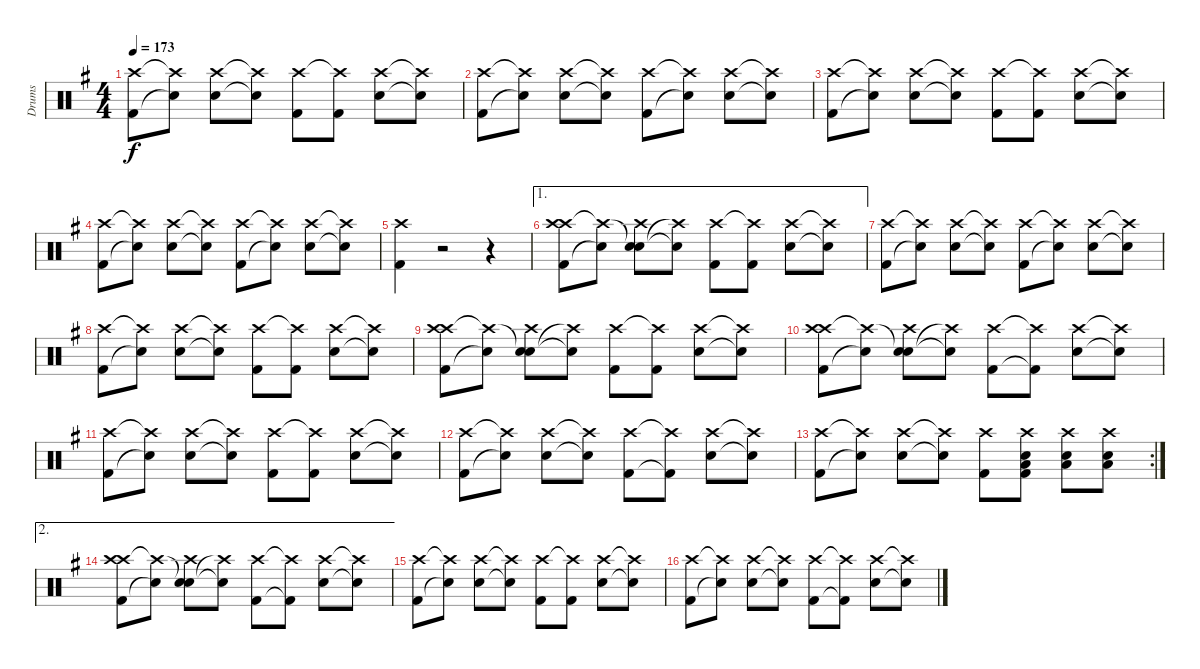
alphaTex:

\track ("Drums" "Drums") {instrument percussion}
\staff {score}
\articulation defaults
\ts (4 4)
\tempo 173
\clef neutral
\ks g
("Kick (hit) 2" "Crash high (hit)").8{dy f} ("Snare (hit)"{t} "Crash high (hit)"{t}).8 ("Snare (hit) 2" "Crash high (hit)").8 ("Snare (hit)"{t} "Crash high (hit)"{t}).8 ("Kick (hit) 2" "Crash high (hit)").8 ("Kick (hit) 2" "Crash high (hit)"{t}).8 ("Snare (hit) 2" "Crash high (hit)").8 ("Snare (hit)"{t} "Crash high (hit)"{t}).8 |
("Kick (hit) 2" "Crash high (hit)").8 ("Snare (hit)"{t} "Crash high (hit)"{t}).8 ("Snare (hit) 2" "Crash high (hit)").8 ("Snare (hit)"{t} "Crash high (hit)"{t}).8 ("Kick (hit) 2" "Crash high (hit)").8 ("Snare (hit)"{t} "Crash high (hit)"{t}).8 ("Snare (hit) 2" "Crash high (hit)").8 ("Snare (hit)"{t} "Crash high (hit)"{t}).8 |
("Kick (hit) 2" "Crash high (hit)").8 ("Snare (hit)"{t} "Crash high (hit)"{t}).8 ("Snare (hit) 2" "Crash high (hit)").8 ("Snare (hit)"{t} "Crash high (hit)"{t}).8 ("Kick (hit) 2" "Crash high (hit)").8 ("Kick (hit) 2" "Crash high (hit)"{t}).8 ("Snare (hit) 2" "Crash high (hit)").8 ("Snare (hit)"{t} "Crash high (hit)"{t}).8 |
("Kick (hit) 2" "Crash high (hit)").8 ("Snare (hit)"{t} "Crash high (hit)"{t}).8 ("Snare (hit) 2" "Crash high (hit)").8 ("Snare (hit)"{t} "Crash high (hit)"{t}).8 ("Kick (hit) 2" "Crash high (hit)").8 ("Snare (hit)"{t} "Crash high (hit)"{t}).8 ("Snare (hit) 2" "Crash high (hit)").8 ("Snare (hit)"{t} "Crash high (hit)"{t}).8 |
("Kick (hit) 2" "Crash high (hit)").4 r.2 r.4 |
\ae 1
("Kick (hit) 2" "Crash high (hit)" "Crash high (hit)").8 ("Snare (hit)"{t} "Crash high (hit)"{t}).8 ("Snare (hit) 2" "Snare (hit)"{t} "Crash high (hit)").8 ("Snare (hit)"{t} "Crash high (hit)"{t}).8 ("Kick (hit) 2" "Crash high (hit)").8 ("Kick (hit) 2" "Crash high (hit)"{t}).8 ("Snare (hit) 2" "Crash high (hit)").8 ("Snare (hit)"{t} "Crash high (hit)"{t}).8 |
("Kick (hit) 2" "Crash high (hit)").8 ("Snare (hit)"{t} "Crash high (hit)"{t}).8 ("Snare (hit) 2" "Crash high (hit)").8 ("Snare (hit)"{t} "Crash high (hit)"{t}).8 ("Kick (hit) 2" "Crash high (hit)").8 ("Snare (hit)"{t} "Crash high (hit)"{t}).8 ("Snare (hit) 2" "Crash high (hit)").8 ("Snare (hit)"{t} "Crash high (hit)"{t}).8 |
("Kick (hit) 2" "Crash high (hit)").8 ("Snare (hit)"{t} "Crash high (hit)"{t}).8 ("Snare (hit) 2" "Crash high (hit)").8 ("Snare (hit)"{t} "Crash high (hit)"{t}).8 ("Kick (hit) 2" "Crash high (hit)").8 ("Kick (hit) 2" "Crash high (hit)"{t}).8 ("Snare (hit) 2" "Crash high (hit)").8 ("Snare (hit)"{t} "Crash high (hit)"{t}).8 |
("Kick (hit) 2" "Crash high (hit)" "Crash high (hit)").8 ("Snare (hit)"{t} "Crash high (hit)"{t}).8 ("Snare (hit) 2" "Snare (hit)"{t} "Crash high (hit)").8 ("Snare (hit)"{t} "Crash high (hit)"{t}).8 ("Kick (hit) 2" "Crash high (hit)").8 ("Kick (hit) 2" "Crash high (hit)"{t}).8 ("Snare (hit) 2" "Crash high (hit)").8 ("Snare (hit)"{t} "Crash high (hit)"{t}).8 |
("Kick (hit) 2" "Crash high (hit)" "Crash high (hit)").8 ("Snare (hit)"{t} "Crash high (hit)"{t}).8 ("Snare (hit) 2" "Snare (hit)"{t} "Crash high (hit)").8 ("Snare (hit)"{t} "Crash high (hit)"{t}).8 ("Kick (hit) 2" "Crash high (hit)").8 ("Kick (hit) 2"{t} "Crash high (hit)"{t}).8 ("Snare (hit) 2" "Crash high (hit)").8 ("Snare (hit)"{t} "Crash high (hit)"{t}).8 |
("Kick (hit) 2" "Crash high (hit)").8 ("Snare (hit)"{t} "Crash high (hit)"{t}).8 ("Snare (hit) 2" "Crash high (hit)").8 ("Snare (hit)"{t} "Crash high (hit)"{t}).8 ("Kick (hit) 2" "Crash high (hit)").8 ("Kick (hit) 2" "Crash high (hit)"{t}).8 ("Snare (hit) 2" "Crash high (hit)").8 ("Snare (hit)"{t} "Crash high (hit)"{t}).8 |
("Kick (hit) 2" "Crash high (hit)").8 ("Snare (hit)"{t} "Crash high (hit)"{t}).8 ("Snare (hit) 2" "Crash high (hit)").8 ("Snare (hit)"{t} "Crash high (hit)"{t}).8 ("Kick (hit) 2" "Crash high (hit)").8 ("Kick (hit) 2"{t} "Crash high (hit)"{t}).8 ("Snare (hit) 2" "Crash high (hit)").8 ("Snare (hit)"{t} "Crash high (hit)"{t}).8 |
\rc 2
("Kick (hit) 2" "Crash high (hit)").8 ("Snare (hit)"{t} "Crash high (hit)"{t}).8 ("Snare (hit) 2" "Crash high (hit)").8 ("Snare (hit)"{t} "Crash high (hit)"{t}).8 ("Kick (hit) 2" "Crash high (hit)").8 ("Kick (hit) 2" "Snare (hit) 2" "Low Tom (hit)" "Crash high (hit)").8 ("Snare (hit) 2" "Low Tom (hit)" "Crash high (hit)").8 ("Snare (hit) 2" "Low Tom (hit)" "Crash high (hit)").8 |
\ae 2
("Kick (hit) 2" "Crash high (hit)" "Crash high (hit)").8 ("Snare (hit)"{t} "Crash high (hit)"{t}).8 ("Snare (hit) 2" "Snare (hit)"{t} "Crash high (hit)").8 ("Snare (hit)"{t} "Crash high (hit)"{t}).8 ("Kick (hit) 2" "Crash high (hit)").8 ("Kick (hit) 2"{t} "Crash high (hit)"{t}).8 ("Snare (hit) 2" "Crash high (hit)").8 ("Snare (hit)"{t} "Crash high (hit)"{t}).8 |
("Kick (hit) 2" "Crash high (hit)").8 ("Snare (hit)"{t} "Crash high (hit)"{t}).8 ("Snare (hit) 2" "Crash high (hit)").8 ("Snare (hit)"{t} "Crash high (hit)"{t}).8 ("Kick (hit) 2" "Crash high (hit)").8 ("Kick (hit) 2" "Crash high (hit)"{t}).8 ("Snare (hit) 2" "Crash high (hit)").8 ("Snare (hit)"{t} "Crash high (hit)"{t}).8 |
("Kick (hit) 2" "Crash high (hit)").8 ("Snare (hit)"{t} "Crash high (hit)"{t}).8 ("Snare (hit) 2" "Crash high (hit)").8 ("Snare (hit)"{t} "Crash high (hit)"{t}).8 ("Kick (hit) 2" "Crash high (hit)").8 ("Kick (hit) 2"{t} "Crash high (hit)"{t}).8 ("Snare (hit) 2" "Crash high (hit)").8 ("Snare (hit)"{t} "Crash high (hit)"{t}).8
